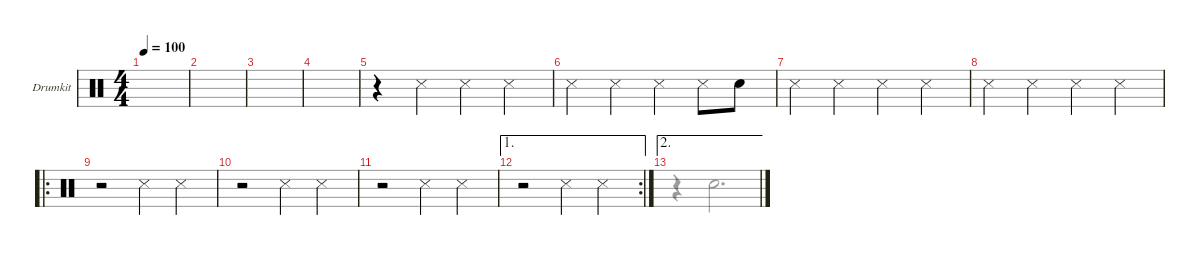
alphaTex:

\defaultSystemsLayout 4
\hideDynamics
\bracketExtendMode nobrackets
\firstSystemTrackNameMode fullname
\firstSystemTrackNameOrientation horizontal
\otherSystemsTrackNameOrientation horizontal
\track ("Drumkit" "drm.") {instrument percussion}
\staff {score}
\articulation defaults
\voice
\ts (4 4)
\tempo 100
\clef neutral
\ks c
|
|
|
|
r.4 "Snare (side stick) 3".4 "Snare (side stick) 3".4 "Snare (side stick) 3".4 |
"Snare (side stick) 3".4 "Snare (side stick) 3".4 "Snare (side stick) 3".4 "Snare (side stick) 3".8 "Snare (hit) 2".8 |
"Snare (side stick) 3".4 "Snare (side stick) 3".4 "Snare (side stick) 3".4 "Snare (side stick) 3".4 |
"Snare (side stick) 3".4 "Snare (side stick) 3".4 "Snare (side stick) 3".4 "Snare (side stick) 3".4 |
\ro
r.2 "Snare (side stick) 3".4 "Snare (side stick) 3".4 |
r.2 "Snare (side stick) 3".4 "Snare (side stick) 3".4 |
r.2 "Snare (side stick) 3".4 "Snare (side stick) 3".4 |
\ae 1
\rc 2
r.2 "Snare (side stick) 3".4 "Snare (side stick) 3".4 |
\ae 2
|
|
|
\voice
\clef neutral
\ottava regular
\simile none
\ks c
|
|
|
|
|
|
|
|
|
|
|
|
r.4 "Snare (hit) 2".2{d} |
|
|
